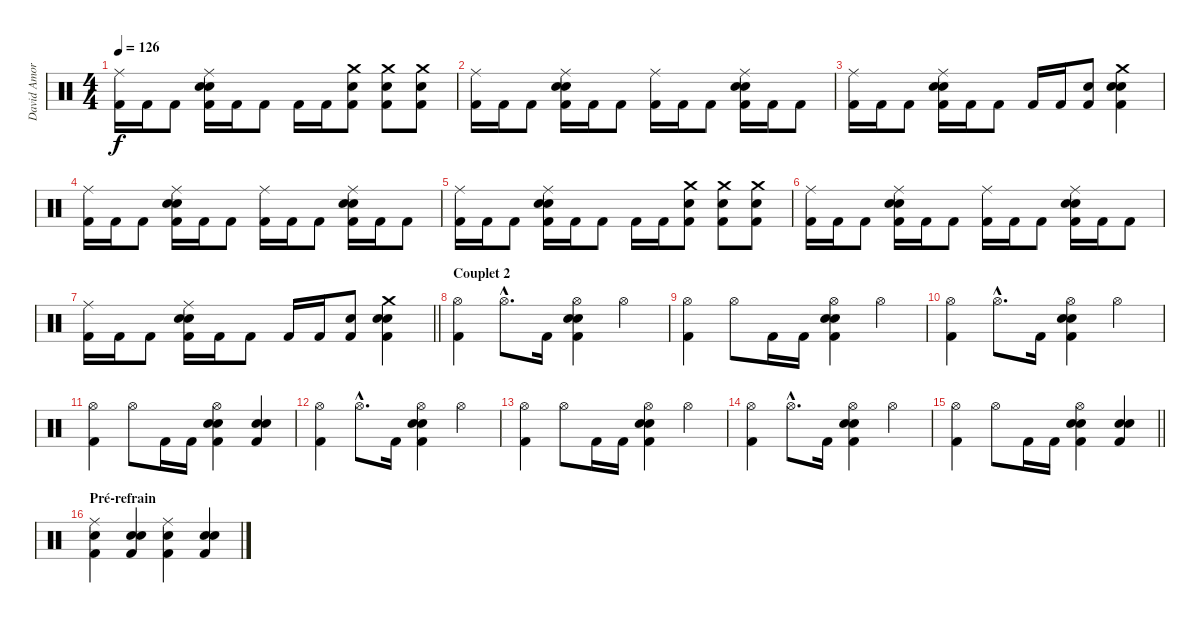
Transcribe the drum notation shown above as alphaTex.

\track ("David Amore" "David Amor") {instrument percussion}
\staff {score}
\articulation defaults
\ts (4 4)
\tempo 126
\clef neutral
\ks c
("Ride (middle)" "Kick (hit) 2").16{dy f} "Kick (hit) 2".16 "Kick (hit) 2".8 ("Electric Snare (hit)" "Snare (hit) 2" "Ride (middle)" "Kick (hit) 2").16 "Kick (hit) 2".16 "Kick (hit) 2".8 "Kick (hit) 2".16 "Kick (hit) 2".16 ("Crash medium (hit)" "Snare (hit) 2" "Kick (hit) 2").8 ("Crash medium (hit)" "Snare (hit) 2" "Kick (hit) 2").8 ("Crash medium (hit)" "Snare (hit) 2" "Kick (hit) 2").8 |
("Ride (middle)" "Kick (hit) 2").16 "Kick (hit) 2".16 "Kick (hit) 2".8 ("Ride (middle)" "Snare (hit) 2" "Electric Snare (hit)" "Kick (hit) 2").16 "Kick (hit) 2".16 "Kick (hit) 2".8 ("Ride (middle)" "Kick (hit) 2").16 "Kick (hit) 2".16 "Kick (hit) 2".8 ("Ride (middle)" "Snare (hit) 2" "Electric Snare (hit)" "Kick (hit) 2").16 "Kick (hit) 2".16 "Kick (hit) 2".8 |
("Ride (middle)" "Kick (hit) 2").16 "Kick (hit) 2".16 "Kick (hit) 2".8 ("Electric Snare (hit)" "Snare (hit) 2" "Ride (middle)" "Kick (hit) 2").16 "Kick (hit) 2".16 "Kick (hit) 2".8 "Kick (hit) 2".16 "Kick (hit) 2".16 ("Snare (hit) 2" "Kick (hit) 2").8 ("Crash medium (hit)" "Electric Snare (hit)" "Snare (hit) 2" "Kick (hit) 2").4 |
("Ride (middle)" "Kick (hit) 2").16 "Kick (hit) 2".16 "Kick (hit) 2".8 ("Ride (middle)" "Snare (hit) 2" "Electric Snare (hit)" "Kick (hit) 2").16 "Kick (hit) 2".16 "Kick (hit) 2".8 ("Ride (middle)" "Kick (hit) 2").16 "Kick (hit) 2".16 "Kick (hit) 2".8 ("Ride (middle)" "Snare (hit) 2" "Electric Snare (hit)" "Kick (hit) 2").16 "Kick (hit) 2".16 "Kick (hit) 2".8 |
("Ride (middle)" "Kick (hit) 2").16 "Kick (hit) 2".16 "Kick (hit) 2".8 ("Electric Snare (hit)" "Snare (hit) 2" "Ride (middle)" "Kick (hit) 2").16 "Kick (hit) 2".16 "Kick (hit) 2".8 "Kick (hit) 2".16 "Kick (hit) 2".16 ("Crash medium (hit)" "Snare (hit) 2" "Kick (hit) 2").8 ("Crash medium (hit)" "Snare (hit) 2" "Kick (hit) 2").8 ("Crash medium (hit)" "Snare (hit) 2" "Kick (hit) 2").8 |
("Ride (middle)" "Kick (hit) 2").16 "Kick (hit) 2".16 "Kick (hit) 2".8 ("Ride (middle)" "Snare (hit) 2" "Electric Snare (hit)" "Kick (hit) 2").16 "Kick (hit) 2".16 "Kick (hit) 2".8 ("Ride (middle)" "Kick (hit) 2").16 "Kick (hit) 2".16 "Kick (hit) 2".8 ("Ride (middle)" "Snare (hit) 2" "Electric Snare (hit)" "Kick (hit) 2").16 "Kick (hit) 2".16 "Kick (hit) 2".8 |
\barLineRight lightlight
("Ride (middle)" "Kick (hit) 2").16 "Kick (hit) 2".16 "Kick (hit) 2".8 ("Electric Snare (hit)" "Snare (hit) 2" "Ride (middle)" "Kick (hit) 2").16 "Kick (hit) 2".16 "Kick (hit) 2".8 "Kick (hit) 2".16 "Kick (hit) 2".16 ("Snare (hit) 2" "Kick (hit) 2").8 ("Crash medium (hit)" "Electric Snare (hit)" "Snare (hit) 2" "Kick (hit) 2").4 |
\section ("" "Couplet 2")
("Hi-Hat (open)" "Kick (hit) 2").4 "Hi-Hat (open)"{hac}.8{d} "Kick (hit) 2".16 ("Hi-Hat (open)" "Snare (hit) 2" "Electric Snare (hit)" "Kick (hit) 2").4 "Hi-Hat (open)".4 |
("Hi-Hat (open)" "Kick (hit) 2").4 "Hi-Hat (open)".8 "Kick (hit) 2".16 "Kick (hit) 2".16 ("Hi-Hat (open)" "Snare (hit) 2" "Electric Snare (hit)" "Kick (hit) 2").4 "Hi-Hat (open)".4 |
("Hi-Hat (open)" "Kick (hit) 2").4 "Hi-Hat (open)"{hac}.8{d} "Kick (hit) 2".16 ("Hi-Hat (open)" "Snare (hit) 2" "Electric Snare (hit)" "Kick (hit) 2").4 "Hi-Hat (open)".4 |
("Hi-Hat (open)" "Kick (hit) 2").4 "Hi-Hat (open)".8 "Kick (hit) 2".16 "Kick (hit) 2".16 ("Hi-Hat (open)" "Snare (hit) 2" "Electric Snare (hit)" "Kick (hit) 2").4 ("Kick (hit) 2" "Electric Snare (hit)" "Snare (hit) 2").4 |
("Hi-Hat (open)" "Kick (hit) 2").4 "Hi-Hat (open)"{hac}.8{d} "Kick (hit) 2".16 ("Hi-Hat (open)" "Snare (hit) 2" "Electric Snare (hit)" "Kick (hit) 2").4 "Hi-Hat (open)".4 |
("Hi-Hat (open)" "Kick (hit) 2").4 "Hi-Hat (open)".8 "Kick (hit) 2".16 "Kick (hit) 2".16 ("Hi-Hat (open)" "Snare (hit) 2" "Electric Snare (hit)" "Kick (hit) 2").4 "Hi-Hat (open)".4 |
("Hi-Hat (open)" "Kick (hit) 2").4 "Hi-Hat (open)"{hac}.8{d} "Kick (hit) 2".16 ("Hi-Hat (open)" "Snare (hit) 2" "Electric Snare (hit)" "Kick (hit) 2").4 "Hi-Hat (open)".4 |
\barLineRight lightlight
("Hi-Hat (open)" "Kick (hit) 2").4 "Hi-Hat (open)".8 "Kick (hit) 2".16 "Kick (hit) 2".16 ("Hi-Hat (open)" "Snare (hit) 2" "Electric Snare (hit)" "Kick (hit) 2").4 ("Kick (hit) 2" "Electric Snare (hit)" "Snare (hit) 2").4 |
\section ("" "Pré-refrain")
("Ride (middle)" "Electric Snare (hit)" "Kick (hit) 2").4 ("Electric Snare (hit)" "Snare (hit) 2" "Kick (hit) 2").4 ("Ride (middle)" "Electric Snare (hit)" "Kick (hit) 2").4 ("Snare (hit) 2" "Electric Snare (hit)" "Kick (hit) 2").4
